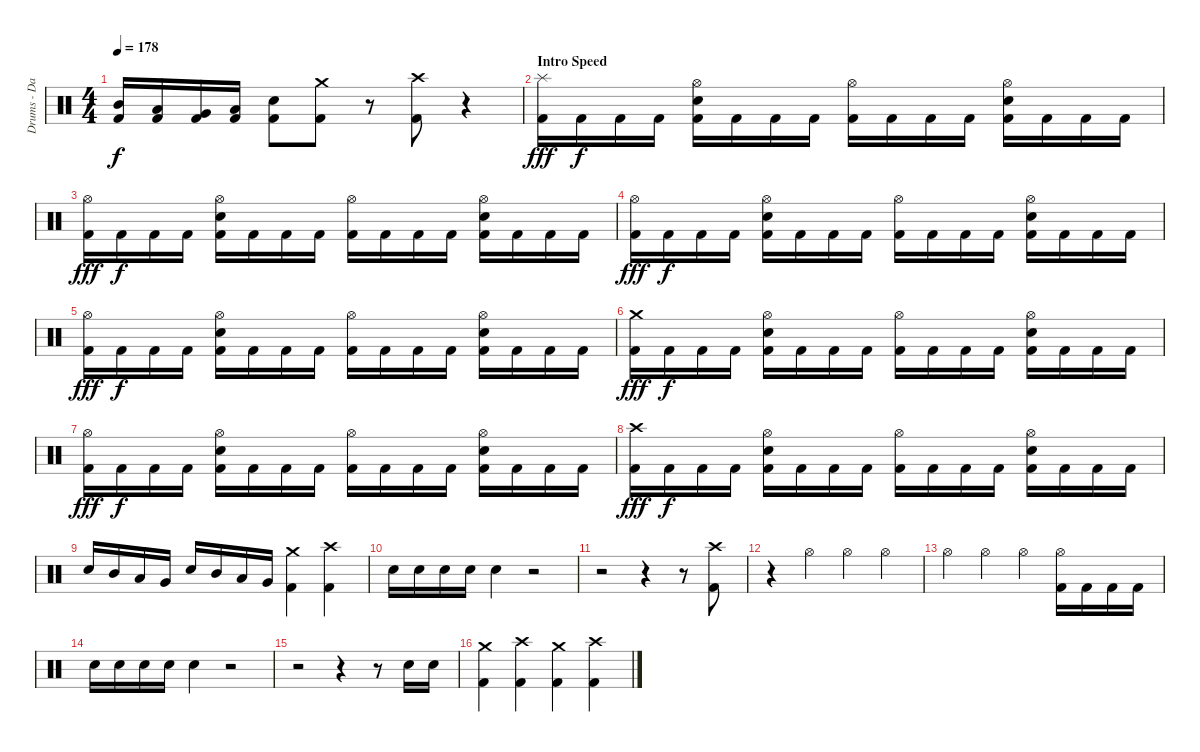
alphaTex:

\track ("Drums - Daniel Zimmermann" "Drums - Da") {instrument percussion}
\staff {score}
\articulation defaults
\ts (4 4)
\tempo 178
\clef neutral
\ks c
("Kick (hit) 2" "Mid Tom (hit)").16{dy f} ("Kick (hit) 2" "Low Tom (hit)").16 ("Kick (hit) 2" "Very Low Tom (hit)").16 ("Kick (hit) 2" "Low Floor Tom (hit)").16 ("Kick (hit) 2" "Electric Snare (hit)").8 ("Kick (hit) 2" "Crash medium (hit)").8 r.8 ("Kick (hit) 2" "Crash high (hit)").8 r.4 |
\section ("" "Intro Speed")
("Kick (hit) 2" "Splash (hit)").16{dy fff} "Kick (hit) 2".16{dy f} "Kick (hit) 2".16 "Kick (hit) 2".16 ("Kick (hit) 2" "Electric Snare (hit)" "Hi-Hat (open)").16 "Kick (hit) 2".16 "Kick (hit) 2".16 "Kick (hit) 2".16 ("Kick (hit) 2" "Hi-Hat (open)").16 "Kick (hit) 2".16 "Kick (hit) 2".16 "Kick (hit) 2".16 ("Kick (hit) 2" "Electric Snare (hit)" "Hi-Hat (open)").16 "Kick (hit) 2".16 "Kick (hit) 2".16 "Kick (hit) 2".16 |
("Kick (hit) 2" "Hi-Hat (open)").16{dy fff} "Kick (hit) 2".16{dy f} "Kick (hit) 2".16 "Kick (hit) 2".16 ("Kick (hit) 2" "Electric Snare (hit)" "Hi-Hat (open)").16 "Kick (hit) 2".16 "Kick (hit) 2".16 "Kick (hit) 2".16 ("Kick (hit) 2" "Hi-Hat (open)").16 "Kick (hit) 2".16 "Kick (hit) 2".16 "Kick (hit) 2".16 ("Kick (hit) 2" "Electric Snare (hit)" "Hi-Hat (open)").16 "Kick (hit) 2".16 "Kick (hit) 2".16 "Kick (hit) 2".16 |
("Kick (hit) 2" "Hi-Hat (open)").16{dy fff} "Kick (hit) 2".16{dy f} "Kick (hit) 2".16 "Kick (hit) 2".16 ("Kick (hit) 2" "Electric Snare (hit)" "Hi-Hat (open)").16 "Kick (hit) 2".16 "Kick (hit) 2".16 "Kick (hit) 2".16 ("Kick (hit) 2" "Hi-Hat (open)").16 "Kick (hit) 2".16 "Kick (hit) 2".16 "Kick (hit) 2".16 ("Kick (hit) 2" "Electric Snare (hit)" "Hi-Hat (open)").16 "Kick (hit) 2".16 "Kick (hit) 2".16 "Kick (hit) 2".16 |
("Kick (hit) 2" "Hi-Hat (open)").16{dy fff} "Kick (hit) 2".16{dy f} "Kick (hit) 2".16 "Kick (hit) 2".16 ("Kick (hit) 2" "Electric Snare (hit)" "Hi-Hat (open)").16 "Kick (hit) 2".16 "Kick (hit) 2".16 "Kick (hit) 2".16 ("Kick (hit) 2" "Hi-Hat (open)").16 "Kick (hit) 2".16 "Kick (hit) 2".16 "Kick (hit) 2".16 ("Kick (hit) 2" "Electric Snare (hit)" "Hi-Hat (open)").16 "Kick (hit) 2".16 "Kick (hit) 2".16 "Kick (hit) 2".16 |
("Kick (hit) 2" "Crash medium (hit)").16{dy fff} "Kick (hit) 2".16{dy f} "Kick (hit) 2".16 "Kick (hit) 2".16 ("Kick (hit) 2" "Electric Snare (hit)" "Hi-Hat (open)").16 "Kick (hit) 2".16 "Kick (hit) 2".16 "Kick (hit) 2".16 ("Kick (hit) 2" "Hi-Hat (open)").16 "Kick (hit) 2".16 "Kick (hit) 2".16 "Kick (hit) 2".16 ("Kick (hit) 2" "Electric Snare (hit)" "Hi-Hat (open)").16 "Kick (hit) 2".16 "Kick (hit) 2".16 "Kick (hit) 2".16 |
("Kick (hit) 2" "Hi-Hat (open)").16{dy fff} "Kick (hit) 2".16{dy f} "Kick (hit) 2".16 "Kick (hit) 2".16 ("Kick (hit) 2" "Electric Snare (hit)" "Hi-Hat (open)").16 "Kick (hit) 2".16 "Kick (hit) 2".16 "Kick (hit) 2".16 ("Kick (hit) 2" "Hi-Hat (open)").16 "Kick (hit) 2".16 "Kick (hit) 2".16 "Kick (hit) 2".16 ("Kick (hit) 2" "Electric Snare (hit)" "Hi-Hat (open)").16 "Kick (hit) 2".16 "Kick (hit) 2".16 "Kick (hit) 2".16 |
("Kick (hit) 2" "Crash high (hit)").16{dy fff} "Kick (hit) 2".16{dy f} "Kick (hit) 2".16 "Kick (hit) 2".16 ("Kick (hit) 2" "Electric Snare (hit)" "Hi-Hat (open)").16 "Kick (hit) 2".16 "Kick (hit) 2".16 "Kick (hit) 2".16 ("Kick (hit) 2" "Hi-Hat (open)").16 "Kick (hit) 2".16 "Kick (hit) 2".16 "Kick (hit) 2".16 ("Kick (hit) 2" "Electric Snare (hit)" "Hi-Hat (open)").16 "Kick (hit) 2".16 "Kick (hit) 2".16 "Kick (hit) 2".16 |
"Electric Snare (hit)".16 "Mid Tom (hit)".16 "Low Tom (hit)".16 "Very Low Tom (hit)".16 "Electric Snare (hit)".16 "Mid Tom (hit)".16 "Low Tom (hit)".16 "Very Low Tom (hit)".16 ("Kick (hit) 2" "Crash medium (hit)").4 ("Kick (hit) 2" "Crash high (hit)").4 |
"Electric Snare (hit)".16 "Electric Snare (hit)".16 "Electric Snare (hit)".16 "Electric Snare (hit)".16 "Electric Snare (hit)".4 r.2 |
r.2 r.4 r.8 ("Kick (hit) 2" "Crash high (hit)").8 |
r.4 "Hi-Hat (open)".4 "Hi-Hat (open)".4 "Hi-Hat (open)".4 |
"Hi-Hat (open)".4 "Hi-Hat (open)".4 "Hi-Hat (open)".4 ("Kick (hit) 2" "Hi-Hat (open)").16 "Kick (hit) 2".16 "Kick (hit) 2".16 "Kick (hit) 2".16 |
"Electric Snare (hit)".16 "Electric Snare (hit)".16 "Electric Snare (hit)".16 "Electric Snare (hit)".16 "Electric Snare (hit)".4 r.2 |
r.2 r.4 r.8 "Electric Snare (hit)".16 "Electric Snare (hit)".16 |
("Kick (hit) 2" "Crash medium (hit)").4 ("Kick (hit) 2" "Crash high (hit)").4 ("Kick (hit) 2" "Crash medium (hit)").4 ("Kick (hit) 2" "Crash high (hit)").4
